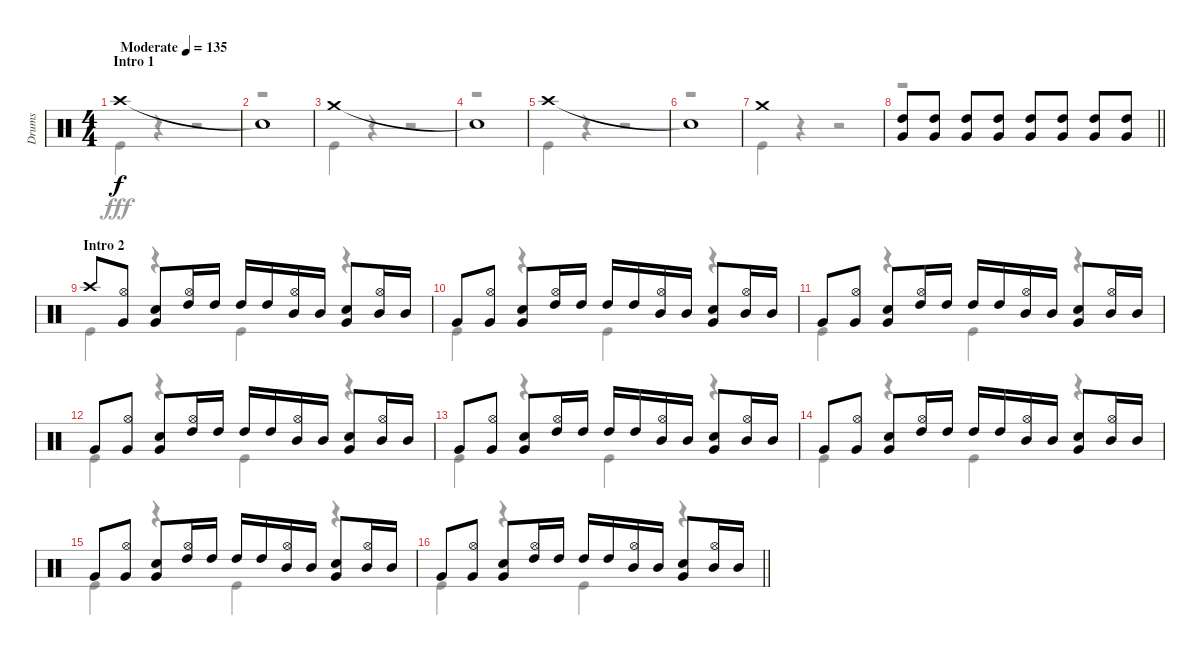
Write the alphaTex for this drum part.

\track ("Drums" "Drums") {instrument percussion}
\staff {score}
\articulation defaults
\voice
\ts (4 4)
\section ("" "Intro 1")
\tempo (135 "Moderate")
\clef neutral
\ks c "Crash high (hit)".1{dy f}
|
"Snare (hit)"{t}.1 |
"Crash medium (hit)".1 |
"Snare (hit)"{t}.1 |
"Crash high (hit)".1 |
"Snare (hit)"{t}.1 |
"Crash medium (hit)".1 |
\barLineRight lightlight
("High Tom (hit)" "Very Low Tom (hit)").8 ("High Tom (hit)" "Very Low Tom (hit)").8 ("High Tom (hit)" "Very Low Tom (hit)").8 ("High Tom (hit)" "Very Low Tom (hit)").8 ("High Tom (hit)" "Very Low Tom (hit)").8 ("High Tom (hit)" "Very Low Tom (hit)").8 ("High Tom (hit)" "Very Low Tom (hit)").8 ("High Tom (hit)" "Very Low Tom (hit)").8 |
\section ("" "Intro 2")
"Crash high (hit)".8 ("Hi-Hat (open)" "Very Low Tom (hit)").8 ("Snare (hit) 2" "Very Low Tom (hit)").8 ("Hi-Hat (open)" "High Tom (hit)").16 "High Tom (hit)".16 "High Tom (hit)".16 "High Tom (hit)".16 ("Hi-Hat (open)" "Mid Tom (hit)").16 "Mid Tom (hit)".16 ("Snare (hit) 2" "Very Low Tom (hit)").8 ("Hi-Hat (open)" "Mid Tom (hit)").16 "Mid Tom (hit)".16 |
"Very Low Tom (hit)".8 ("Hi-Hat (open)" "Very Low Tom (hit)").8 ("Snare (hit) 2" "Very Low Tom (hit)").8 ("Hi-Hat (open)" "High Tom (hit)").16 "High Tom (hit)".16 "High Tom (hit)".16 "High Tom (hit)".16 ("Hi-Hat (open)" "Mid Tom (hit)").16 "Mid Tom (hit)".16 ("Snare (hit) 2" "Very Low Tom (hit)").8 ("Hi-Hat (open)" "Mid Tom (hit)").16 "Mid Tom (hit)".16 |
"Very Low Tom (hit)".8 ("Hi-Hat (open)" "Very Low Tom (hit)").8 ("Snare (hit) 2" "Very Low Tom (hit)").8 ("Hi-Hat (open)" "High Tom (hit)").16 "High Tom (hit)".16 "High Tom (hit)".16 "High Tom (hit)".16 ("Hi-Hat (open)" "Mid Tom (hit)").16 "Mid Tom (hit)".16 ("Snare (hit) 2" "Very Low Tom (hit)").8 ("Hi-Hat (open)" "Mid Tom (hit)").16 "Mid Tom (hit)".16 |
"Very Low Tom (hit)".8 ("Hi-Hat (open)" "Very Low Tom (hit)").8 ("Snare (hit) 2" "Very Low Tom (hit)").8 ("Hi-Hat (open)" "High Tom (hit)").16 "High Tom (hit)".16 "High Tom (hit)".16 "High Tom (hit)".16 ("Hi-Hat (open)" "Mid Tom (hit)").16 "Mid Tom (hit)".16 ("Snare (hit) 2" "Very Low Tom (hit)").8 ("Hi-Hat (open)" "Mid Tom (hit)").16 "Mid Tom (hit)".16 |
"Very Low Tom (hit)".8 ("Hi-Hat (open)" "Very Low Tom (hit)").8 ("Snare (hit) 2" "Very Low Tom (hit)").8 ("Hi-Hat (open)" "High Tom (hit)").16 "High Tom (hit)".16 "High Tom (hit)".16 "High Tom (hit)".16 ("Hi-Hat (open)" "Mid Tom (hit)").16 "Mid Tom (hit)".16 ("Snare (hit) 2" "Very Low Tom (hit)").8 ("Hi-Hat (open)" "Mid Tom (hit)").16 "Mid Tom (hit)".16 |
"Very Low Tom (hit)".8 ("Hi-Hat (open)" "Very Low Tom (hit)").8 ("Snare (hit) 2" "Very Low Tom (hit)").8 ("Hi-Hat (open)" "High Tom (hit)").16 "High Tom (hit)".16 "High Tom (hit)".16 "High Tom (hit)".16 ("Hi-Hat (open)" "Mid Tom (hit)").16 "Mid Tom (hit)".16 ("Snare (hit) 2" "Very Low Tom (hit)").8 ("Hi-Hat (open)" "Mid Tom (hit)").16 "Mid Tom (hit)".16 |
"Very Low Tom (hit)".8 ("Hi-Hat (open)" "Very Low Tom (hit)").8 ("Snare (hit) 2" "Very Low Tom (hit)").8 ("Hi-Hat (open)" "High Tom (hit)").16 "High Tom (hit)".16 "High Tom (hit)".16 "High Tom (hit)".16 ("Hi-Hat (open)" "Mid Tom (hit)").16 "Mid Tom (hit)".16 ("Snare (hit) 2" "Very Low Tom (hit)").8 ("Hi-Hat (open)" "Mid Tom (hit)").16 "Mid Tom (hit)".16 |
\barLineRight lightlight "Very Low Tom (hit)".8
("Hi-Hat (open)" "Very Low Tom (hit)").8 ("Snare (hit) 2" "Very Low Tom (hit)").8 ("Hi-Hat (open)" "High Tom (hit)").16 "High Tom (hit)".16 "High Tom (hit)".16 "High Tom (hit)".16 ("Hi-Hat (open)" "Mid Tom (hit)").16 "Mid Tom (hit)".16 ("Snare (hit) 2" "Very Low Tom (hit)").8 ("Hi-Hat (open)" "Mid Tom (hit)").16 "Mid Tom (hit)".16
\voice
\clef neutral
\ottava regular
\simile none
\ks c "Kick (hit)".4{dy fff}
r.4 r.2 |
r.1 |
"Kick (hit)".4 r.4 r.2 |
r.1 |
"Kick (hit)".4 r.4 r.2 |
r.1 |
"Kick (hit)".4 r.4 r.2 |
\barLineRight lightlight
r.1 |
"Kick (hit)".4 r.4 "Kick (hit)".4 r.4 |
"Kick (hit)".4 r.4 "Kick (hit)".4 r.4 |
"Kick (hit)".4 r.4 "Kick (hit)".4 r.4 |
"Kick (hit)".4 r.4 "Kick (hit)".4 r.4 |
"Kick (hit)".4 r.4 "Kick (hit)".4 r.4 |
"Kick (hit)".4 r.4 "Kick (hit)".4 r.4 |
"Kick (hit)".4 r.4 "Kick (hit)".4 r.4 |
\barLineRight lightlight "Kick (hit)".4
r.4 "Kick (hit)".4 r.4
